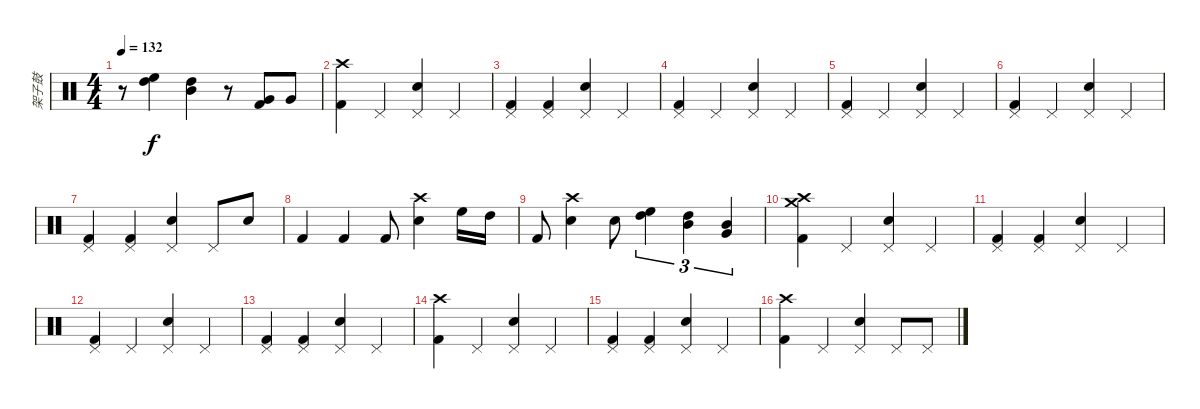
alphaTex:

\track ("架子鼓" "架子鼓") {instrument percussion}
\staff {score}
\articulation defaults
\ts (4 4)
\tempo 132
\clef neutral
\ks c
r.8{dy f} ("High Floor Tom (hit)" "High Tom (hit)").4 ("High Tom (hit)" "Mid Tom (hit)").4 r.8 ("Very Low Tom (hit)" "Kick (hit) 2").8 "Very Low Tom (hit)".8 |
("Crash high (hit)" "Kick (hit) 2").4 "Pedal Hi-Hat (hit)".4 ("Pedal Hi-Hat (hit)" "Electric Snare (hit)").4 "Pedal Hi-Hat (hit)".4 |
("Pedal Hi-Hat (hit)" "Kick (hit) 2").4 ("Pedal Hi-Hat (hit)" "Kick (hit) 2").4 ("Pedal Hi-Hat (hit)" "Electric Snare (hit)").4 "Pedal Hi-Hat (hit)".4 |
("Pedal Hi-Hat (hit)" "Kick (hit) 2").4 "Pedal Hi-Hat (hit)".4 ("Pedal Hi-Hat (hit)" "Electric Snare (hit)").4 "Pedal Hi-Hat (hit)".4 |
("Pedal Hi-Hat (hit)" "Kick (hit) 2").4 "Pedal Hi-Hat (hit)".4 ("Pedal Hi-Hat (hit)" "Electric Snare (hit)").4 "Pedal Hi-Hat (hit)".4 |
("Pedal Hi-Hat (hit)" "Kick (hit) 2").4 "Pedal Hi-Hat (hit)".4 ("Pedal Hi-Hat (hit)" "Electric Snare (hit)").4 "Pedal Hi-Hat (hit)".4 |
("Pedal Hi-Hat (hit)" "Kick (hit) 2").4 ("Pedal Hi-Hat (hit)" "Kick (hit) 2").4 ("Pedal Hi-Hat (hit)" "Electric Snare (hit)").4 "Pedal Hi-Hat (hit)".8 "Electric Snare (hit)".8 |
"Kick (hit) 2".4 "Kick (hit) 2".4 "Kick (hit) 2".8 ("Crash high (hit)" "Electric Snare (hit)").4 "High Floor Tom (hit)".16 "High Tom (hit)".16 |
"Kick (hit) 2".8 ("Crash high (hit)" "Electric Snare (hit)").4 "Electric Snare (hit)".8 ("High Floor Tom (hit)" "High Tom (hit)").4{tu (3 2)} ("High Tom (hit)" "Mid Tom (hit)").4{tu (3 2)} ("Mid Tom (hit)" "Very Low Tom (hit)").4{tu (3 2)} |
("Crash medium (hit)" "Crash high (hit)" "Kick (hit) 2").4 "Pedal Hi-Hat (hit)".4 ("Pedal Hi-Hat (hit)" "Electric Snare (hit)").4 "Pedal Hi-Hat (hit)".4 |
("Pedal Hi-Hat (hit)" "Kick (hit) 2").4 ("Pedal Hi-Hat (hit)" "Kick (hit) 2").4 ("Pedal Hi-Hat (hit)" "Electric Snare (hit)").4 "Pedal Hi-Hat (hit)".4 |
("Pedal Hi-Hat (hit)" "Kick (hit) 2").4 "Pedal Hi-Hat (hit)".4 ("Pedal Hi-Hat (hit)" "Electric Snare (hit)").4 "Pedal Hi-Hat (hit)".4 |
("Pedal Hi-Hat (hit)" "Kick (hit) 2").4 ("Pedal Hi-Hat (hit)" "Kick (hit) 2").4 ("Pedal Hi-Hat (hit)" "Electric Snare (hit)").4 "Pedal Hi-Hat (hit)".4 |
("Crash high (hit)" "Kick (hit) 2").4 "Pedal Hi-Hat (hit)".4 ("Pedal Hi-Hat (hit)" "Electric Snare (hit)").4 "Pedal Hi-Hat (hit)".4 |
("Pedal Hi-Hat (hit)" "Kick (hit) 2").4 ("Pedal Hi-Hat (hit)" "Kick (hit) 2").4 ("Pedal Hi-Hat (hit)" "Electric Snare (hit)").4 "Pedal Hi-Hat (hit)".4 |
("Crash high (hit)" "Kick (hit) 2").4 "Pedal Hi-Hat (hit)".4 ("Pedal Hi-Hat (hit)" "Electric Snare (hit)").4 "Pedal Hi-Hat (hit)".8 "Pedal Hi-Hat (hit)".8
